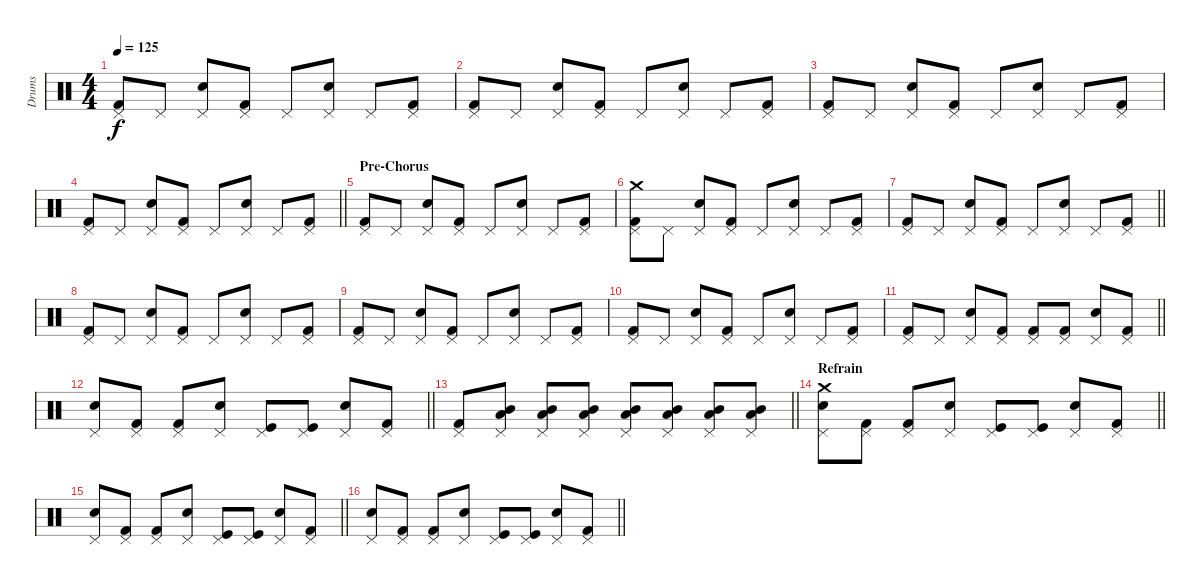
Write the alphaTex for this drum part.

\track ("Drums" "Drums") {instrument percussion}
\staff {score}
\articulation defaults
\ts (4 4)
\tempo 125
\clef neutral
\ks c
("Kick (hit) 2" "Pedal Hi-Hat (hit)").8{dy f} "Pedal Hi-Hat (hit)".8 ("Electric Snare (hit)" "Pedal Hi-Hat (hit)").8 ("Kick (hit) 2" "Pedal Hi-Hat (hit)").8 "Pedal Hi-Hat (hit)".8 ("Electric Snare (hit)" "Pedal Hi-Hat (hit)").8 "Pedal Hi-Hat (hit)".8 ("Kick (hit) 2" "Pedal Hi-Hat (hit)").8 |
("Kick (hit) 2" "Pedal Hi-Hat (hit)").8 "Pedal Hi-Hat (hit)".8 ("Electric Snare (hit)" "Pedal Hi-Hat (hit)").8 ("Kick (hit) 2" "Pedal Hi-Hat (hit)").8 "Pedal Hi-Hat (hit)".8 ("Electric Snare (hit)" "Pedal Hi-Hat (hit)").8 "Pedal Hi-Hat (hit)".8 ("Kick (hit) 2" "Pedal Hi-Hat (hit)").8 |
("Kick (hit) 2" "Pedal Hi-Hat (hit)").8 "Pedal Hi-Hat (hit)".8 ("Electric Snare (hit)" "Pedal Hi-Hat (hit)").8 ("Kick (hit) 2" "Pedal Hi-Hat (hit)").8 "Pedal Hi-Hat (hit)".8 ("Electric Snare (hit)" "Pedal Hi-Hat (hit)").8 "Pedal Hi-Hat (hit)".8 ("Kick (hit) 2" "Pedal Hi-Hat (hit)").8 |
\barLineRight lightlight
("Kick (hit) 2" "Pedal Hi-Hat (hit)").8 "Pedal Hi-Hat (hit)".8 ("Electric Snare (hit)" "Pedal Hi-Hat (hit)").8 ("Kick (hit) 2" "Pedal Hi-Hat (hit)").8 "Pedal Hi-Hat (hit)".8 ("Electric Snare (hit)" "Pedal Hi-Hat (hit)").8 "Pedal Hi-Hat (hit)".8 ("Kick (hit) 2" "Pedal Hi-Hat (hit)").8 |
\section ("" "Pre-Chorus")
("Kick (hit) 2" "Pedal Hi-Hat (hit)").8 "Pedal Hi-Hat (hit)".8 ("Electric Snare (hit)" "Pedal Hi-Hat (hit)").8 ("Kick (hit) 2" "Pedal Hi-Hat (hit)").8 "Pedal Hi-Hat (hit)".8 ("Electric Snare (hit)" "Pedal Hi-Hat (hit)").8 "Pedal Hi-Hat (hit)".8 ("Kick (hit) 2" "Pedal Hi-Hat (hit)").8 |
("Kick (hit) 2" "Crash medium (hit)" "Pedal Hi-Hat (hit)").8 "Pedal Hi-Hat (hit)".8 ("Electric Snare (hit)" "Pedal Hi-Hat (hit)").8 ("Kick (hit) 2" "Pedal Hi-Hat (hit)").8 "Pedal Hi-Hat (hit)".8 ("Electric Snare (hit)" "Pedal Hi-Hat (hit)").8 "Pedal Hi-Hat (hit)".8 ("Kick (hit) 2" "Pedal Hi-Hat (hit)").8 |
\barLineRight lightlight
("Kick (hit) 2" "Pedal Hi-Hat (hit)").8 "Pedal Hi-Hat (hit)".8 ("Electric Snare (hit)" "Pedal Hi-Hat (hit)").8 ("Kick (hit) 2" "Pedal Hi-Hat (hit)").8 "Pedal Hi-Hat (hit)".8 ("Electric Snare (hit)" "Pedal Hi-Hat (hit)").8 "Pedal Hi-Hat (hit)".8 ("Kick (hit) 2" "Pedal Hi-Hat (hit)").8 |
\section ("" "")
("Kick (hit) 2" "Pedal Hi-Hat (hit)").8 "Pedal Hi-Hat (hit)".8 ("Electric Snare (hit)" "Pedal Hi-Hat (hit)").8 ("Kick (hit) 2" "Pedal Hi-Hat (hit)").8 "Pedal Hi-Hat (hit)".8 ("Electric Snare (hit)" "Pedal Hi-Hat (hit)").8 "Pedal Hi-Hat (hit)".8 ("Kick (hit) 2" "Pedal Hi-Hat (hit)").8 |
("Kick (hit) 2" "Pedal Hi-Hat (hit)").8 "Pedal Hi-Hat (hit)".8 ("Electric Snare (hit)" "Pedal Hi-Hat (hit)").8 ("Kick (hit) 2" "Pedal Hi-Hat (hit)").8 "Pedal Hi-Hat (hit)".8 ("Electric Snare (hit)" "Pedal Hi-Hat (hit)").8 "Pedal Hi-Hat (hit)".8 ("Kick (hit) 2" "Pedal Hi-Hat (hit)").8 |
("Kick (hit) 2" "Pedal Hi-Hat (hit)").8 "Pedal Hi-Hat (hit)".8 ("Electric Snare (hit)" "Pedal Hi-Hat (hit)").8 ("Kick (hit) 2" "Pedal Hi-Hat (hit)").8 "Pedal Hi-Hat (hit)".8 ("Electric Snare (hit)" "Pedal Hi-Hat (hit)").8 "Pedal Hi-Hat (hit)".8 ("Kick (hit) 2" "Pedal Hi-Hat (hit)").8 |
\barLineRight lightlight
("Kick (hit) 2" "Pedal Hi-Hat (hit)").8 "Pedal Hi-Hat (hit)".8 ("Electric Snare (hit)" "Pedal Hi-Hat (hit)").8 ("Kick (hit) 2" "Pedal Hi-Hat (hit)").8 ("Kick (hit) 2" "Pedal Hi-Hat (hit)").8 ("Kick (hit) 2" "Pedal Hi-Hat (hit)").8 ("Electric Snare (hit)" "Pedal Hi-Hat (hit)").8 ("Kick (hit) 2" "Pedal Hi-Hat (hit)").8 |
\barLineRight lightlight
("Electric Snare (hit)" "Pedal Hi-Hat (hit)").8 ("Kick (hit) 2" "Pedal Hi-Hat (hit)").8 ("Kick (hit) 2" "Pedal Hi-Hat (hit)").8 ("Electric Snare (hit)" "Pedal Hi-Hat (hit)").8 ("Kick (hit)" "Pedal Hi-Hat (hit)").8 ("Kick (hit)" "Pedal Hi-Hat (hit)").8 ("Electric Snare (hit)" "Pedal Hi-Hat (hit)").8 ("Kick (hit) 2" "Pedal Hi-Hat (hit)").8 |
\barLineRight lightlight
("Kick (hit) 2" "Pedal Hi-Hat (hit)").8 ("Mid Tom (hit)" "Low Tom (hit)" "Pedal Hi-Hat (hit)").8 ("Mid Tom (hit)" "Low Tom (hit)" "Pedal Hi-Hat (hit)").8 ("Mid Tom (hit)" "Low Tom (hit)" "Pedal Hi-Hat (hit)").8 ("Mid Tom (hit)" "Low Tom (hit)" "Pedal Hi-Hat (hit)").8 ("Low Tom (hit)" "Mid Tom (hit)" "Pedal Hi-Hat (hit)").8 ("Low Tom (hit)" "Mid Tom (hit)" "Pedal Hi-Hat (hit)").8 ("Low Tom (hit)" "Mid Tom (hit)" "Pedal Hi-Hat (hit)").8 |
\section ("" "Refrain")
\barLineRight lightlight
("Electric Snare (hit)" "Crash medium (hit)" "Pedal Hi-Hat (hit)").8 ("Kick (hit) 2" "Pedal Hi-Hat (hit)").8 ("Kick (hit) 2" "Pedal Hi-Hat (hit)").8 ("Electric Snare (hit)" "Pedal Hi-Hat (hit)").8 ("Kick (hit)" "Pedal Hi-Hat (hit)").8 ("Kick (hit)" "Pedal Hi-Hat (hit)").8 ("Electric Snare (hit)" "Pedal Hi-Hat (hit)").8 ("Kick (hit) 2" "Pedal Hi-Hat (hit)").8 |
\barLineRight lightlight
("Electric Snare (hit)" "Pedal Hi-Hat (hit)").8 ("Kick (hit) 2" "Pedal Hi-Hat (hit)").8 ("Kick (hit) 2" "Pedal Hi-Hat (hit)").8 ("Electric Snare (hit)" "Pedal Hi-Hat (hit)").8 ("Kick (hit)" "Pedal Hi-Hat (hit)").8 ("Kick (hit)" "Pedal Hi-Hat (hit)").8 ("Electric Snare (hit)" "Pedal Hi-Hat (hit)").8 ("Kick (hit) 2" "Pedal Hi-Hat (hit)").8 |
\barLineRight lightlight
("Electric Snare (hit)" "Pedal Hi-Hat (hit)").8 ("Kick (hit) 2" "Pedal Hi-Hat (hit)").8 ("Kick (hit) 2" "Pedal Hi-Hat (hit)").8 ("Electric Snare (hit)" "Pedal Hi-Hat (hit)").8 ("Kick (hit)" "Pedal Hi-Hat (hit)").8 ("Kick (hit)" "Pedal Hi-Hat (hit)").8 ("Electric Snare (hit)" "Pedal Hi-Hat (hit)").8 ("Kick (hit) 2" "Pedal Hi-Hat (hit)").8
